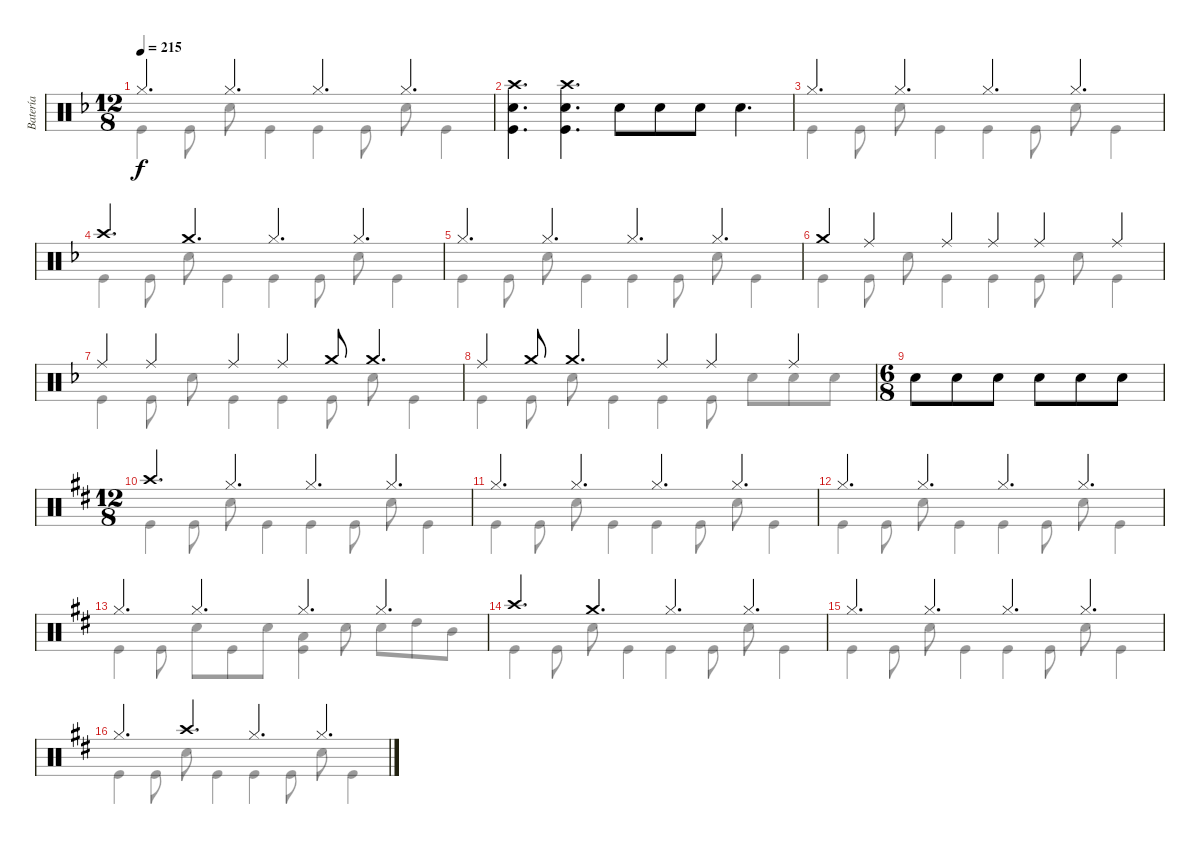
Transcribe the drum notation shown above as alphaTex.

\track ("Batería" "Batería") {instrument percussion}
\staff {score}
\articulation defaults
\voice
\ts (12 8)
\tempo 215
\clef neutral
\ks dminor "Hi-Hat (closed)".4{d dy f} "Hi-Hat (closed)".4{d} "Hi-Hat (closed)".4{d} "Hi-Hat (closed)".4{d}
|
("Crash high (hit)" "Snare (hit) 2" "Kick (hit)").4{d} ("Crash high (hit)" "Snare (hit) 2" "Kick (hit)").4{d} "Snare (hit) 2".8 "Snare (hit) 2".8 "Snare (hit) 2".8 "Snare (hit) 2".4{d} |
"Hi-Hat (closed)".4{d} "Hi-Hat (closed)".4{d} "Hi-Hat (closed)".4{d} "Hi-Hat (closed)".4{d} |
"Crash high (hit)".4{d} "Crash medium (hit)".4{d} "Hi-Hat (closed)".4{d} "Hi-Hat (closed)".4{d} |
"Hi-Hat (closed)".4{d} "Hi-Hat (closed)".4{d} "Hi-Hat (closed)".4{d} "Hi-Hat (closed)".4{d} |
"Crash medium (hit)".4 "Ride (middle)".4 "Ride (middle)".4 "Ride (middle)".4 "Ride (middle)".4 "Ride (middle)".4 |
"Ride (middle)".4 "Ride (middle)".4 "Ride (middle)".4 "Ride (middle)".4 "Crash medium (hit)".8 "Crash medium (hit)".4{d} |
"Ride (middle)".4 "Crash medium (hit)".8 "Crash medium (hit)".4{d} "Ride (middle)".4 "Ride (middle)".4 "Ride (middle)".4 |
\ts (6 8)
"Snare (hit) 2".8 "Snare (hit) 2".8 "Snare (hit) 2".8 "Snare (hit) 2".8 "Snare (hit) 2".8 "Snare (hit) 2".8 |
\ts (12 8)
\ks d "Crash high (hit)".4{d} "Hi-Hat (closed)".4{d} "Hi-Hat (closed)".4{d} "Hi-Hat (closed)".4{d}
|
"Hi-Hat (closed)".4{d} "Hi-Hat (closed)".4{d} "Hi-Hat (closed)".4{d} "Hi-Hat (closed)".4{d} |
"Hi-Hat (closed)".4{d} "Hi-Hat (closed)".4{d} "Hi-Hat (closed)".4{d} "Hi-Hat (closed)".4{d} |
"Hi-Hat (closed)".4{d} "Hi-Hat (closed)".4{d} "Hi-Hat (closed)".4{d} "Hi-Hat (closed)".4{d} |
"Crash high (hit)".4{d} "Crash medium (hit)".4{d} "Hi-Hat (closed)".4{d} "Hi-Hat (closed)".4{d} |
"Hi-Hat (closed)".4{d} "Hi-Hat (closed)".4{d} "Hi-Hat (closed)".4{d} "Hi-Hat (closed)".4{d} |
"Hi-Hat (closed)".4{d} "Crash high (hit)".4{d} "Hi-Hat (closed)".4{d} "Hi-Hat (closed)".4{d}
\voice
\clef neutral
\ottava regular
\simile none
\ks dminor "Kick (hit)".4{dy f} "Kick (hit)".8 "Snare (hit) 2".8 "Kick (hit)".4 "Kick (hit)".4 "Kick (hit)".8 "Snare (hit) 2".8 "Kick (hit)".4
|
|
"Kick (hit)".4 "Kick (hit)".8 "Snare (hit) 2".8 "Kick (hit)".4 "Kick (hit)".4 "Kick (hit)".8 "Snare (hit) 2".8 "Kick (hit)".4 |
"Kick (hit)".4 "Kick (hit)".8 "Snare (hit) 2".8 "Kick (hit)".4 "Kick (hit)".4 "Kick (hit)".8 "Snare (hit) 2".8 "Kick (hit)".4 |
"Kick (hit)".4 "Kick (hit)".8 "Snare (hit) 2".8 "Kick (hit)".4 "Kick (hit)".4 "Kick (hit)".8 "Snare (hit) 2".8 "Kick (hit)".4 |
"Kick (hit)".4 "Kick (hit)".8 "Snare (hit) 2".8 "Kick (hit)".4 "Kick (hit)".4 "Kick (hit)".8 "Snare (hit) 2".8 "Kick (hit)".4 |
"Kick (hit)".4 "Kick (hit)".8 "Snare (hit) 2".8 "Kick (hit)".4 "Kick (hit)".4 "Kick (hit)".8 "Snare (hit) 2".8 "Kick (hit)".4 |
"Kick (hit)".4 "Kick (hit)".8 "Snare (hit) 2".8 "Kick (hit)".4 "Kick (hit)".4 "Kick (hit)".8 "Snare (hit) 2".8 "Snare (hit) 2".8 "Snare (hit) 2".8 |
|
\ks d "Kick (hit)".4 "Kick (hit)".8 "Snare (hit) 2".8 "Kick (hit)".4 "Kick (hit)".4 "Kick (hit)".8 "Snare (hit) 2".8 "Kick (hit)".4
|
"Kick (hit)".4 "Kick (hit)".8 "Snare (hit) 2".8 "Kick (hit)".4 "Kick (hit)".4 "Kick (hit)".8 "Snare (hit) 2".8 "Kick (hit)".4 |
"Kick (hit)".4 "Kick (hit)".8 "Snare (hit) 2".8 "Kick (hit)".4 "Kick (hit)".4 "Kick (hit)".8 "Snare (hit) 2".8 "Kick (hit)".4 |
"Kick (hit)".4 "Kick (hit)".8 "Snare (hit) 2".8 "Kick (hit)".8 "Snare (hit) 2".8 ("Low Tom (hit)" "Kick (hit)").4 "Snare (hit) 2".8 "Snare (hit) 2".8 "High Tom (hit)".8 "Mid Tom (hit)".8 |
"Kick (hit)".4 "Kick (hit)".8 "Snare (hit) 2".8 "Kick (hit)".4 "Kick (hit)".4 "Kick (hit)".8 "Snare (hit) 2".8 "Kick (hit)".4 |
"Kick (hit)".4 "Kick (hit)".8 "Snare (hit) 2".8 "Kick (hit)".4 "Kick (hit)".4 "Kick (hit)".8 "Snare (hit) 2".8 "Kick (hit)".4 |
"Kick (hit)".4 "Kick (hit)".8 "Snare (hit) 2".8 "Kick (hit)".4 "Kick (hit)".4 "Kick (hit)".8 "Snare (hit) 2".8 "Kick (hit)".4
